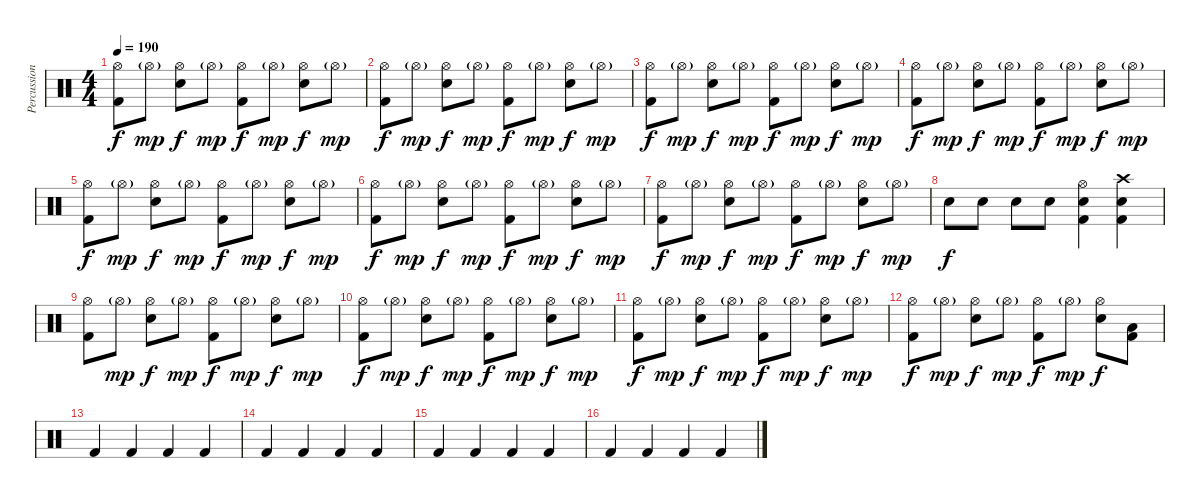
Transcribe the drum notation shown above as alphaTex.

\track ("Percussions" "Percussion") {instrument percussion}
\staff {score}
\articulation defaults
\ts (4 4)
\tempo 190
\clef neutral
\ks c
("Hi-Hat (open)" "Kick (hit) 2").8{dy f} "Hi-Hat (open)"{g}.8{dy mp} ("Hi-Hat (open)" "Snare (hit) 2").8{dy f} "Hi-Hat (open)"{g}.8{dy mp} ("Hi-Hat (open)" "Kick (hit) 2").8{dy f} "Hi-Hat (open)"{g}.8{dy mp} ("Hi-Hat (open)" "Snare (hit) 2").8{dy f} "Hi-Hat (open)"{g}.8{dy mp} |
("Hi-Hat (open)" "Kick (hit) 2").8{dy f} "Hi-Hat (open)"{g}.8{dy mp} ("Hi-Hat (open)" "Snare (hit) 2").8{dy f} "Hi-Hat (open)"{g}.8{dy mp} ("Hi-Hat (open)" "Kick (hit) 2").8{dy f} "Hi-Hat (open)"{g}.8{dy mp} ("Hi-Hat (open)" "Snare (hit) 2").8{dy f} "Hi-Hat (open)"{g}.8{dy mp} |
("Hi-Hat (open)" "Kick (hit) 2").8{dy f} "Hi-Hat (open)"{g}.8{dy mp} ("Hi-Hat (open)" "Snare (hit) 2").8{dy f} "Hi-Hat (open)"{g}.8{dy mp} ("Hi-Hat (open)" "Kick (hit) 2").8{dy f} "Hi-Hat (open)"{g}.8{dy mp} ("Hi-Hat (open)" "Snare (hit) 2").8{dy f} "Hi-Hat (open)"{g}.8{dy mp} |
("Hi-Hat (open)" "Kick (hit) 2").8{dy f} "Hi-Hat (open)"{g}.8{dy mp} ("Hi-Hat (open)" "Snare (hit) 2").8{dy f} "Hi-Hat (open)"{g}.8{dy mp} ("Hi-Hat (open)" "Kick (hit) 2").8{dy f} "Hi-Hat (open)"{g}.8{dy mp} ("Hi-Hat (open)" "Snare (hit) 2").8{dy f} "Hi-Hat (open)"{g}.8{dy mp} |
("Hi-Hat (open)" "Kick (hit) 2").8{dy f} "Hi-Hat (open)"{g}.8{dy mp} ("Hi-Hat (open)" "Snare (hit) 2").8{dy f} "Hi-Hat (open)"{g}.8{dy mp} ("Hi-Hat (open)" "Kick (hit) 2").8{dy f} "Hi-Hat (open)"{g}.8{dy mp} ("Hi-Hat (open)" "Snare (hit) 2").8{dy f} "Hi-Hat (open)"{g}.8{dy mp} |
("Hi-Hat (open)" "Kick (hit) 2").8{dy f} "Hi-Hat (open)"{g}.8{dy mp} ("Hi-Hat (open)" "Snare (hit) 2").8{dy f} "Hi-Hat (open)"{g}.8{dy mp} ("Hi-Hat (open)" "Kick (hit) 2").8{dy f} "Hi-Hat (open)"{g}.8{dy mp} ("Hi-Hat (open)" "Snare (hit) 2").8{dy f} "Hi-Hat (open)"{g}.8{dy mp} |
("Hi-Hat (open)" "Kick (hit) 2").8{dy f} "Hi-Hat (open)"{g}.8{dy mp} ("Hi-Hat (open)" "Snare (hit) 2").8{dy f} "Hi-Hat (open)"{g}.8{dy mp} ("Hi-Hat (open)" "Kick (hit) 2").8{dy f} "Hi-Hat (open)"{g}.8{dy mp} ("Hi-Hat (open)" "Snare (hit) 2").8{dy f} "Hi-Hat (open)"{g}.8{dy mp} |
"Snare (hit) 2".8{dy f} "Snare (hit) 2".8 "Snare (hit) 2".8 "Snare (hit) 2".8 ("Hi-Hat (open)" "Snare (hit) 2" "Kick (hit) 2").4 ("Crash high (hit)" "Snare (hit) 2" "Kick (hit) 2").4 |
("Hi-Hat (open)" "Kick (hit) 2").8 "Hi-Hat (open)"{g}.8{dy mp} ("Hi-Hat (open)" "Snare (hit) 2").8{dy f} "Hi-Hat (open)"{g}.8{dy mp} ("Hi-Hat (open)" "Kick (hit) 2").8{dy f} "Hi-Hat (open)"{g}.8{dy mp} ("Hi-Hat (open)" "Snare (hit) 2").8{dy f} "Hi-Hat (open)"{g}.8{dy mp} |
("Hi-Hat (open)" "Kick (hit) 2").8{dy f} "Hi-Hat (open)"{g}.8{dy mp} ("Hi-Hat (open)" "Snare (hit) 2").8{dy f} "Hi-Hat (open)"{g}.8{dy mp} ("Hi-Hat (open)" "Kick (hit) 2").8{dy f} "Hi-Hat (open)"{g}.8{dy mp} ("Hi-Hat (open)" "Snare (hit) 2").8{dy f} "Hi-Hat (open)"{g}.8{dy mp} |
("Hi-Hat (open)" "Kick (hit) 2").8{dy f} "Hi-Hat (open)"{g}.8{dy mp} ("Hi-Hat (open)" "Snare (hit) 2").8{dy f} "Hi-Hat (open)"{g}.8{dy mp} ("Hi-Hat (open)" "Kick (hit) 2").8{dy f} "Hi-Hat (open)"{g}.8{dy mp} ("Hi-Hat (open)" "Snare (hit) 2").8{dy f} "Hi-Hat (open)"{g}.8{dy mp} |
("Hi-Hat (open)" "Kick (hit) 2").8{dy f} "Hi-Hat (open)"{g}.8{dy mp} ("Hi-Hat (open)" "Snare (hit) 2").8{dy f} "Hi-Hat (open)"{g}.8{dy mp} ("Hi-Hat (open)" "Kick (hit) 2").8{dy f} "Hi-Hat (open)"{g}.8{dy mp} ("Hi-Hat (open)" "Snare (hit) 2").8{dy f} ("Low Tom (hit)" "Kick (hit) 2").8 |
"Kick (hit) 2".4 "Kick (hit) 2".4 "Kick (hit) 2".4 "Kick (hit) 2".4 |
"Kick (hit) 2".4 "Kick (hit) 2".4 "Kick (hit) 2".4 "Kick (hit) 2".4 |
"Kick (hit) 2".4 "Kick (hit) 2".4 "Kick (hit) 2".4 "Kick (hit) 2".4 |
"Kick (hit) 2".4 "Kick (hit) 2".4 "Kick (hit) 2".4 "Kick (hit) 2".4
